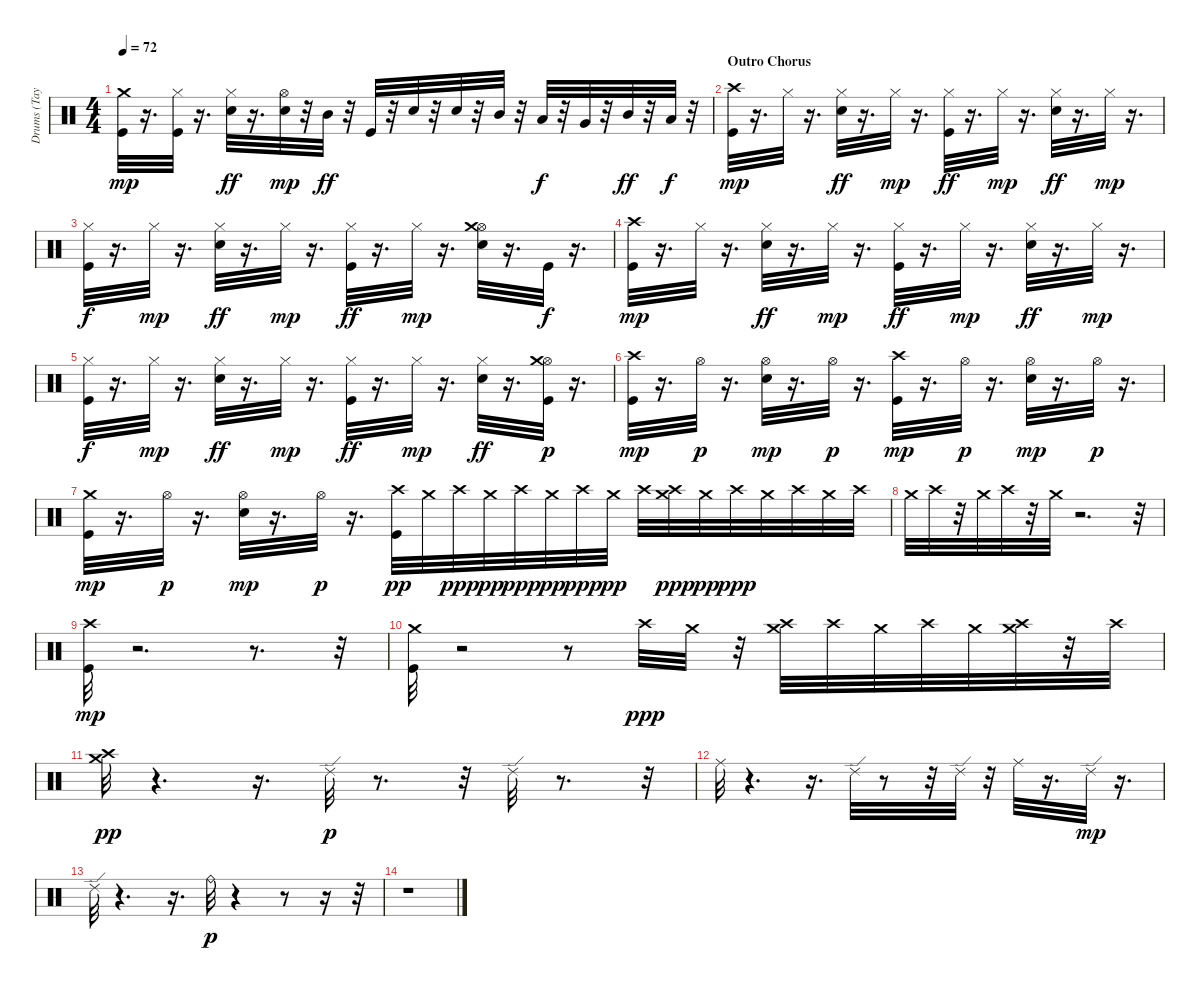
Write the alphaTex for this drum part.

\track ("Drums (Taylor)" "Drums (Tay") {instrument percussion}
\staff {score}
\articulation defaults
\ts (4 4)
\tempo 72
\clef neutral
\ks c
("Kick (hit)" "Crash medium (hit)").32{dy mp} r.16{d} ("Kick (hit)" "Hi-Hat (closed)").32 r.16{d} ("Electric Snare (hit)" "Hi-Hat (closed)").32{dy ff} r.16{d} ("Electric Snare (hit)" "Hi-Hat (open)").32{dy mp} r.32 "Mid Tom (hit)".32{dy ff} r.32 "Kick (hit)".32 r.32 "Electric Snare (hit)".32 r.32 "Electric Snare (hit)".32 r.32 "Mid Tom (hit)".32 r.32 "Low Tom (hit)".32{dy f} r.32 "Very Low Tom (hit)".32 r.32 "Mid Tom (hit)".32{dy ff} r.32 "Low Tom (hit)".32{dy f} r.32 |
\section ("" "Outro Chorus")
("Kick (hit)" "Crash high (hit)").32{dy mp} r.16{d} "Hi-Hat (closed)".32 r.16{d} ("Electric Snare (hit)" "Hi-Hat (closed)").32{dy ff} r.16{d} "Hi-Hat (closed)".32{dy mp} r.16{d} ("Kick (hit)" "Hi-Hat (closed)").32{dy ff} r.16{d} "Hi-Hat (closed)".32{dy mp} r.16{d} ("Electric Snare (hit)" "Hi-Hat (closed)").32{dy ff} r.16{d} "Hi-Hat (closed)".32{dy mp} r.16{d} |
("Kick (hit)" "Hi-Hat (closed)").32{dy f} r.16{d} "Hi-Hat (closed)".32{dy mp} r.16{d} ("Electric Snare (hit)" "Hi-Hat (closed)").32{dy ff} r.16{d} "Hi-Hat (closed)".32{dy mp} r.16{d} ("Kick (hit)" "Hi-Hat (closed)").32{dy ff} r.16{d} "Hi-Hat (closed)".32{dy mp} r.16{d} ("Electric Snare (hit)" "Hi-Hat (open)" "Crash medium (hit)").32 r.16{d} "Kick (hit)".32{dy f} r.16{d} |
("Kick (hit)" "Crash high (hit)").32{dy mp} r.16{d} "Hi-Hat (closed)".32 r.16{d} ("Electric Snare (hit)" "Hi-Hat (closed)").32{dy ff} r.16{d} "Hi-Hat (closed)".32{dy mp} r.16{d} ("Kick (hit)" "Hi-Hat (closed)").32{dy ff} r.16{d} "Hi-Hat (closed)".32{dy mp} r.16{d} ("Electric Snare (hit)" "Hi-Hat (closed)").32{dy ff} r.16{d} "Hi-Hat (closed)".32{dy mp} r.16{d} |
("Kick (hit)" "Hi-Hat (closed)").32{dy f} r.16{d} "Hi-Hat (closed)".32{dy mp} r.16{d} ("Electric Snare (hit)" "Hi-Hat (closed)").32{dy ff} r.16{d} "Hi-Hat (closed)".32{dy mp} r.16{d} ("Kick (hit)" "Hi-Hat (closed)").32{dy ff} r.16{d} "Hi-Hat (closed)".32{dy mp} r.16{d} ("Electric Snare (hit)" "Hi-Hat (closed)").32{dy ff} r.16{d} ("Kick (hit)" "Hi-Hat (open)" "Crash medium (hit)").32{dy p} r.16{d} |
("Kick (hit)" "Crash high (hit)").32{dy mp} r.16{d} "Hi-Hat (open)".32{dy p} r.16{d} ("Electric Snare (hit)" "Hi-Hat (open)").32{dy mp} r.16{d} "Hi-Hat (open)".32{dy p} r.16{d} ("Kick (hit)" "Crash high (hit)").32{dy mp} r.16{d} "Hi-Hat (open)".32{dy p} r.16{d} ("Electric Snare (hit)" "Hi-Hat (open)").32{dy mp} r.16{d} "Hi-Hat (open)".32{dy p} r.16{d} |
("Kick (hit)" "Crash medium (hit)").32{dy mp} r.16{d} "Hi-Hat (open)".32{dy p} r.16{d} ("Electric Snare (hit)" "Hi-Hat (open)").32{dy mp} r.16{d} "Hi-Hat (open)".32{dy p} r.16{d} ("Kick (hit)" "Crash high (hit)").32{dy pp} "Crash medium (hit)".32 "Crash high (hit)".32{dy ppp} "Crash medium (hit)".32{dy pp} "Crash high (hit)".32{dy ppp} "Crash medium (hit)".32{dy pp} "Crash high (hit)".32{dy ppp} "Crash medium (hit)".32{dy pp} "Crash high (hit)".32 ("Crash medium (hit)" "Crash high (hit)").32{dy ppp} "Crash medium (hit)".32{dy pp} "Crash high (hit)".32{dy ppp} "Crash medium (hit)".32 "Crash high (hit)".32 "Crash medium (hit)".32 "Crash high (hit)".32 |
"Crash medium (hit)".32 "Crash high (hit)".32 r.32 "Crash medium (hit)".32 "Crash high (hit)".32 r.32 "Crash medium (hit)".32 r.2{d} r.32 |
("Kick (hit)" "Crash high (hit)").32{dy mp} r.2{d} r.8{d} r.32 |
("Kick (hit)" "Crash medium (hit)").32 r.2 r.8 "Crash high (hit)".32{dy ppp} "Crash medium (hit)".32 r.32 ("Crash high (hit)" "Crash medium (hit)").32 "Crash high (hit)".32 "Crash medium (hit)".32 "Crash high (hit)".32 "Crash medium (hit)".32 ("Crash high (hit)" "Crash medium (hit)").32 r.32 "Crash high (hit)".32 |
("Crash medium (hit)" "Crash high (hit)").32{dy pp} r.4{d} r.16{d} "Ride (edge) 2".32{dy p} r.8{d} r.32 "Ride (edge) 2".32 r.8{d} r.32 |
"Ride (middle)".32 r.4{d} r.16{d} "Ride (edge) 2".32 r.8 r.32 "Ride (edge) 2".32 r.32 "Ride (middle)".32 r.16{d} "Ride (edge) 2".32{dy mp} r.16{d} |
"Ride (edge) 2".32 r.4{d} r.16{d} "Ride (bell)".32{dy p} r.4 r.8 r.16 r.32 |
r.1
